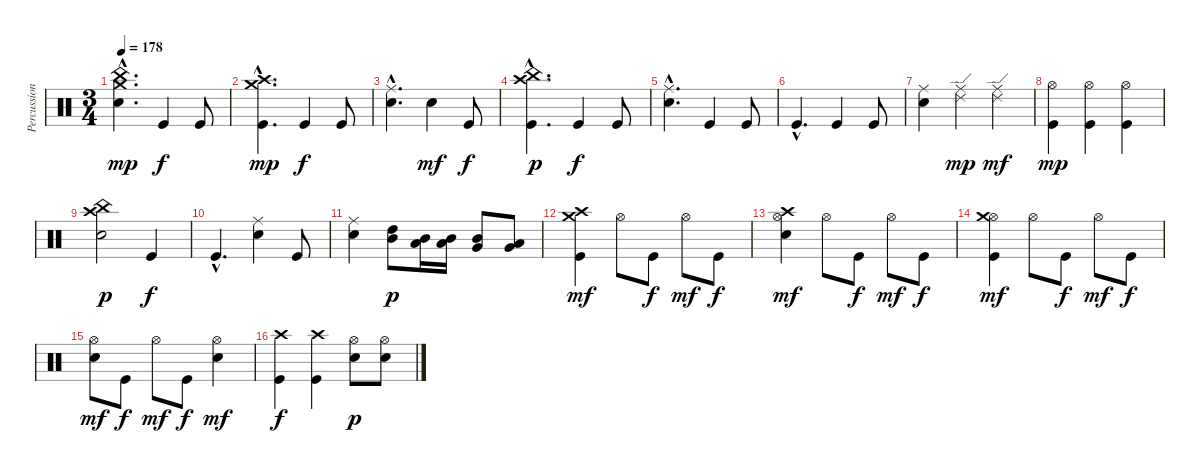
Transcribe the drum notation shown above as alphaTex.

\track ("Percussions" "Percussion") {instrument percussion}
\staff {score}
\articulation defaults
\ts (3 4)
\tempo 178
\clef neutral
\ks c
("Electric Snare (hit)"{hac} "China (hit)"{hac} "Crash medium (hit)"{hac}).4{d dy mp} "Kick (hit)".4{dy f} "Kick (hit)".8 |
("Kick (hit)"{hac} "Crash medium (hit)"{hac} "Crash high (hit)"{hac}).4{d dy mp} "Kick (hit)".4{dy f} "Kick (hit)".8 |
("Electric Snare (hit)"{hac} "Ride (middle)"{hac}).4{d} "Electric Snare (hit)".4{dy mf} "Kick (hit)".8{dy f} |
("Kick (hit)"{hac} "Crash high (hit)"{hac} "China (hit)"{hac}).4{d dy p} "Kick (hit)".4{dy f} "Kick (hit)".8 |
("Electric Snare (hit)"{hac} "Ride (middle)"{hac}).4{d} "Kick (hit)".4 "Kick (hit)".8 |
"Kick (hit)"{hac}.4{d} "Kick (hit)".4 "Kick (hit)".8 |
("Electric Snare (hit)" "Ride (middle)").4 ("Ride (middle)" "Ride (edge) 2").4{dy mp} ("Ride (middle)" "Ride (edge) 2").4{dy mf} |
("Kick (hit)" "Hi-Hat (open)").4{dy mp} ("Kick (hit)" "Hi-Hat (open)").4 ("Kick (hit)" "Hi-Hat (open)").4 |
("Electric Snare (hit)" "Crash high (hit)" "China (hit)").2{dy p} "Kick (hit)".4{dy f} |
"Kick (hit)"{hac}.4{d} ("Electric Snare (hit)" "Ride (middle)").4 "Kick (hit)".8 |
("Electric Snare (hit)" "Ride (middle)").4 ("Mid Tom (hit)" "High Tom (hit)").8{dy p} ("Low Tom (hit)" "Mid Tom (hit)").16 ("Low Tom (hit)" "Mid Tom (hit)").16 ("Very Low Tom (hit)" "Mid Tom (hit)").8 ("Very Low Tom (hit)" "Low Tom (hit)").8 |
("Kick (hit)" "Crash high (hit)" "Crash medium (hit)").4{dy mf} "Hi-Hat (open)".8 "Kick (hit)".8{dy f} "Hi-Hat (open)".8{dy mf} "Kick (hit)".8{dy f} |
("Electric Snare (hit)" "Hi-Hat (open)" "Crash high (hit)").4{dy mf} "Hi-Hat (open)".8 "Kick (hit)".8{dy f} "Hi-Hat (open)".8{dy mf} "Kick (hit)".8{dy f} |
("Kick (hit)" "Hi-Hat (open)" "Crash medium (hit)").4{dy mf} "Hi-Hat (open)".8 "Kick (hit)".8{dy f} "Hi-Hat (open)".8{dy mf} "Kick (hit)".8{dy f} |
("Electric Snare (hit)" "Hi-Hat (open)").8{dy mf} "Kick (hit)".8{dy f} "Hi-Hat (open)".8{dy mf} "Kick (hit)".8{dy f} ("Electric Snare (hit)" "Hi-Hat (open)").4{dy mf} |
("Kick (hit)" "Crash high (hit)").4{dy f} ("Kick (hit)" "Crash high (hit)").4 ("Electric Snare (hit)" "Hi-Hat (open)").8{dy p} ("Electric Snare (hit)" "Hi-Hat (open)").8
